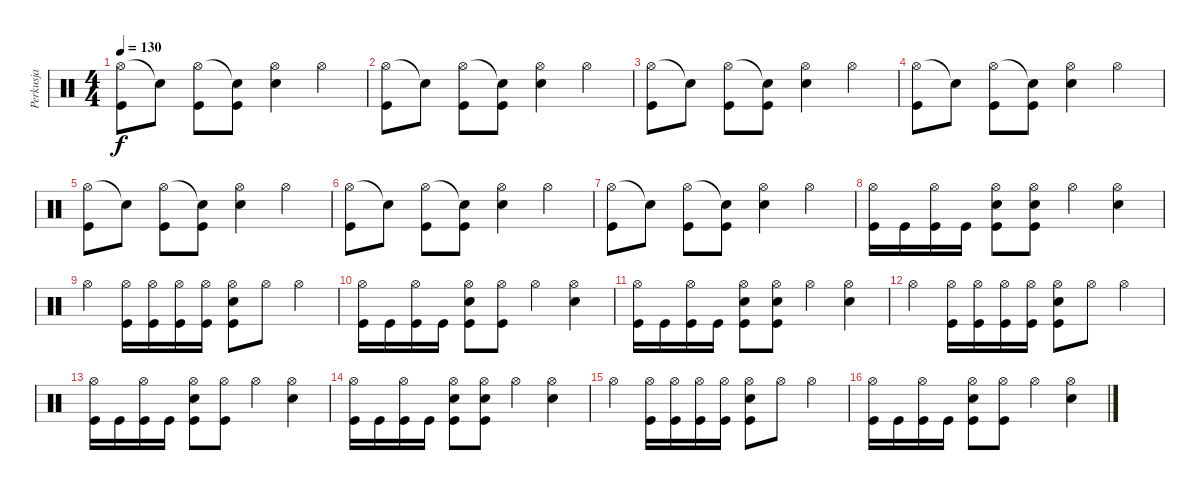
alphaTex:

\track ("Perkusja" "Perkusja") {instrument percussion}
\staff {score}
\articulation defaults
\ts (4 4)
\tempo 130
\clef neutral
\ks c
("Hi-Hat (open)" "Kick (hit)").8{dy f} "Snare (hit)"{t}.8 ("Hi-Hat (open)" "Kick (hit)").8 ("Snare (hit)"{t} "Kick (hit)").8 ("Hi-Hat (open)" "Metronome (bell)").4 "Hi-Hat (open)".4 |
("Hi-Hat (open)" "Kick (hit)").8 "Snare (hit)"{t}.8 ("Hi-Hat (open)" "Kick (hit)").8 ("Snare (hit)"{t} "Kick (hit)").8 ("Hi-Hat (open)" "Metronome (bell)").4 "Hi-Hat (open)".4 |
("Hi-Hat (open)" "Kick (hit)").8 "Snare (hit)"{t}.8 ("Hi-Hat (open)" "Kick (hit)").8 ("Snare (hit)"{t} "Kick (hit)").8 ("Hi-Hat (open)" "Metronome (bell)").4 "Hi-Hat (open)".4 |
("Hi-Hat (open)" "Kick (hit)").8 "Snare (hit)"{t}.8 ("Hi-Hat (open)" "Kick (hit)").8 ("Snare (hit)"{t} "Kick (hit)").8 ("Hi-Hat (open)" "Metronome (bell)").4 "Hi-Hat (open)".4 |
("Hi-Hat (open)" "Kick (hit)").8 "Snare (hit)"{t}.8 ("Hi-Hat (open)" "Kick (hit)").8 ("Snare (hit)"{t} "Kick (hit)").8 ("Hi-Hat (open)" "Metronome (bell)").4 "Hi-Hat (open)".4 |
("Hi-Hat (open)" "Kick (hit)").8 "Snare (hit)"{t}.8 ("Hi-Hat (open)" "Kick (hit)").8 ("Snare (hit)"{t} "Kick (hit)").8 ("Hi-Hat (open)" "Metronome (bell)").4 "Hi-Hat (open)".4 |
("Hi-Hat (open)" "Kick (hit)").8 "Snare (hit)"{t}.8 ("Hi-Hat (open)" "Kick (hit)").8 ("Snare (hit)"{t} "Kick (hit)").8 ("Hi-Hat (open)" "Metronome (bell)").4 "Hi-Hat (open)".4 |
("Hi-Hat (open)" "Kick (hit)").16 "Kick (hit)".16 ("Hi-Hat (open)" "Kick (hit)").16 "Kick (hit)".16 ("Hi-Hat (open)" "Metronome (bell)" "Kick (hit)").8 ("Hi-Hat (open)" "Metronome (bell)" "Kick (hit)").8 "Hi-Hat (open)".4 ("Hi-Hat (open)" "Metronome (bell)").4 |
"Hi-Hat (open)".4 ("Hi-Hat (open)" "Kick (hit)").16 ("Hi-Hat (open)" "Kick (hit)").16 ("Hi-Hat (open)" "Kick (hit)").16 ("Hi-Hat (open)" "Kick (hit)").16 ("Hi-Hat (open)" "Metronome (bell)" "Kick (hit)").8 "Hi-Hat (open)".8 "Hi-Hat (open)".4 |
("Hi-Hat (open)" "Kick (hit)").16 "Kick (hit)".16 ("Hi-Hat (open)" "Kick (hit)").16 "Kick (hit)".16 ("Hi-Hat (open)" "Metronome (bell)" "Kick (hit)").8 ("Hi-Hat (open)" "Kick (hit)").8 "Hi-Hat (open)".4 ("Hi-Hat (open)" "Metronome (bell)").4 |
("Hi-Hat (open)" "Kick (hit)").16 "Kick (hit)".16 ("Hi-Hat (open)" "Kick (hit)").16 "Kick (hit)".16 ("Hi-Hat (open)" "Metronome (bell)" "Kick (hit)").8 ("Hi-Hat (open)" "Metronome (bell)" "Kick (hit)").8 "Hi-Hat (open)".4 ("Hi-Hat (open)" "Metronome (bell)").4 |
"Hi-Hat (open)".4 ("Hi-Hat (open)" "Kick (hit)").16 ("Hi-Hat (open)" "Kick (hit)").16 ("Hi-Hat (open)" "Kick (hit)").16 ("Hi-Hat (open)" "Kick (hit)").16 ("Hi-Hat (open)" "Metronome (bell)" "Kick (hit)").8 "Hi-Hat (open)".8 "Hi-Hat (open)".4 |
("Hi-Hat (open)" "Kick (hit)").16 "Kick (hit)".16 ("Hi-Hat (open)" "Kick (hit)").16 "Kick (hit)".16 ("Hi-Hat (open)" "Metronome (bell)" "Kick (hit)").8 ("Hi-Hat (open)" "Kick (hit)").8 "Hi-Hat (open)".4 ("Hi-Hat (open)" "Metronome (bell)").4 |
("Hi-Hat (open)" "Kick (hit)").16 "Kick (hit)".16 ("Hi-Hat (open)" "Kick (hit)").16 "Kick (hit)".16 ("Hi-Hat (open)" "Metronome (bell)" "Kick (hit)").8 ("Hi-Hat (open)" "Metronome (bell)" "Kick (hit)").8 "Hi-Hat (open)".4 ("Hi-Hat (open)" "Metronome (bell)").4 |
"Hi-Hat (open)".4 ("Hi-Hat (open)" "Kick (hit)").16 ("Hi-Hat (open)" "Kick (hit)").16 ("Hi-Hat (open)" "Kick (hit)").16 ("Hi-Hat (open)" "Kick (hit)").16 ("Hi-Hat (open)" "Metronome (bell)" "Kick (hit)").8 "Hi-Hat (open)".8 "Hi-Hat (open)".4 |
("Hi-Hat (open)" "Kick (hit)").16 "Kick (hit)".16 ("Hi-Hat (open)" "Kick (hit)").16 "Kick (hit)".16 ("Hi-Hat (open)" "Metronome (bell)" "Kick (hit)").8 ("Hi-Hat (open)" "Kick (hit)").8 "Hi-Hat (open)".4 ("Hi-Hat (open)" "Metronome (bell)").4
